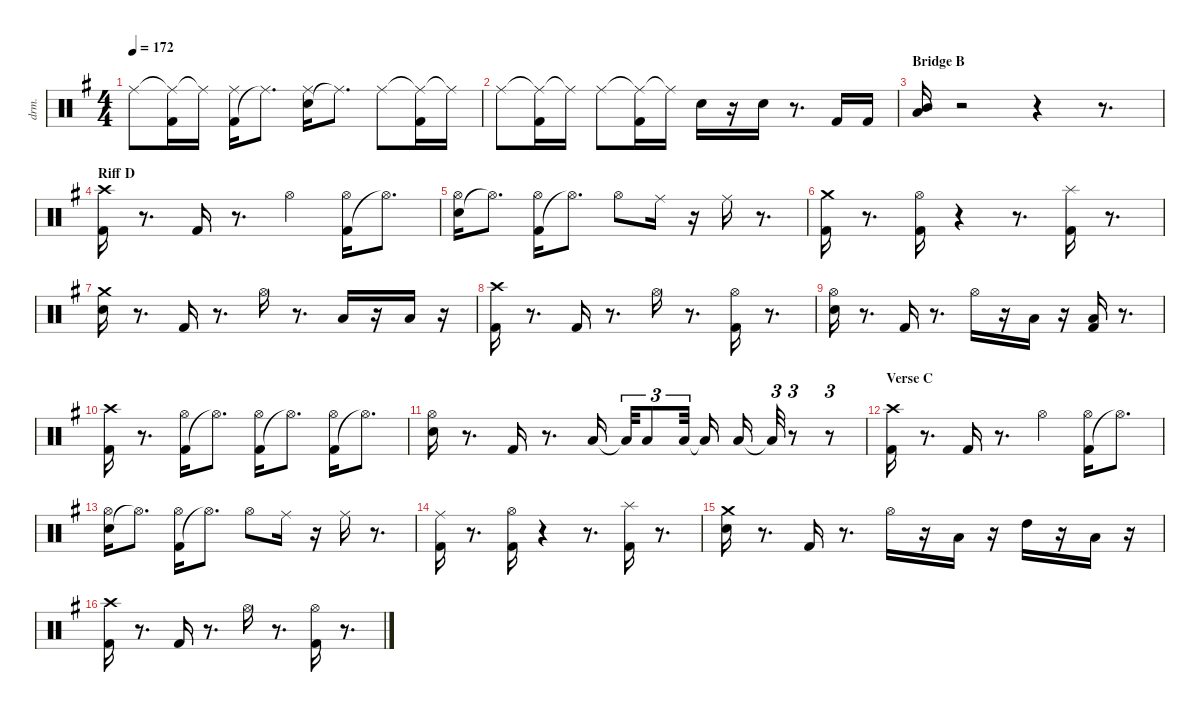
\defaultSystemsLayout 4
\hideDynamics
\bracketExtendMode nobrackets
\otherSystemsTrackNameOrientation horizontal
\track ("Shinya" "drm.") {instrument percussion}
\staff {score}
\articulation defaults
\ts (4 4)
\tempo 172
\clef neutral
\ks eminor "Ride (middle)"{acc #}.8{dy fff}
("Ride (middle)"{t acc #} "Kick (hit) 2"{acc forcenatural}).16 "Ride (middle)"{t acc #}.16 ("Kick (hit) 2"{acc forcenatural} "Ride (middle)"{acc #}).16 "Ride (middle)"{t acc #}.8{d} ("Snare (hit) 2"{acc forcenatural} "Ride (middle)"{acc #}).16 "Ride (middle)"{t acc #}.8{d} "Ride (middle)"{acc #}.8 ("Ride (middle)"{t acc #} "Kick (hit) 2"{acc forcenatural}).16 "Ride (middle)"{t acc #}.16 |
"Ride (middle)"{acc #}.8 ("Ride (middle)"{t acc #} "Kick (hit) 2"{acc forcenatural}).16 "Ride (middle)"{t acc #}.16 "Ride (middle)"{acc #}.8 ("Ride (middle)"{t acc #} "Kick (hit) 2"{acc forcenatural}).16 "Ride (middle)"{t acc #}.16 "Snare (hit) 2"{acc forcenatural}.16 r.16 "Snare (hit) 2"{acc forcenatural}.16 r.8{d} "Kick (hit) 2"{acc forcenatural}.16 "Kick (hit) 2"{acc forcenatural}.16 |
\section ("" "Bridge B")
("Low Tom (hit)"{acc forcenatural} "Mid Tom (hit)"{acc forcenatural}).16 r.2 r.4 r.8{d} |
\section ("" "Riff D")
("Kick (hit) 2"{acc forcenatural} "Crash high (hit)"{acc #}).16 r.8{d} "Kick (hit) 2"{acc forcenatural}.16 r.8{d} "Hi-Hat (open)"{acc #}.4 ("Kick (hit) 2"{acc forcenatural} "Hi-Hat (open)"{acc #}).16 "Hi-Hat (open)"{t acc #}.8{d} |
("Snare (hit) 2"{acc forcenatural} "Hi-Hat (open)"{acc #}).16 "Hi-Hat (open)"{t acc #}.8{d} ("Kick (hit) 2"{acc forcenatural} "Hi-Hat (open)"{acc #}).16 "Hi-Hat (open)"{t acc #}.8{d} "Hi-Hat (open)"{acc #}.8 "Ride (middle)"{acc #}.16 r.16 "Ride (middle)"{acc #}.16 r.8{d} |
("Kick (hit) 2"{acc forcenatural} "Crash medium (hit)"{acc forcenatural}).16 r.8{d} ("Kick (hit) 2"{acc forcenatural} "Hi-Hat (open)"{acc #}).16 r.4 r.8{d} ("Kick (hit) 2"{acc forcenatural} "Splash (hit)"{acc forcenatural}).16 r.8{d} |
("Snare (hit) 2"{acc forcenatural} "Crash medium (hit)"{acc forcenatural}).16 r.8{d} "Kick (hit) 2"{acc forcenatural}.16 r.8{d} "Hi-Hat (open)"{acc #}.16 r.8{d} "Low Tom (hit)"{acc forcenatural}.16 r.16 "Low Tom (hit)"{acc forcenatural}.16 r.16 |
("Kick (hit) 2"{acc forcenatural} "Crash high (hit)"{acc #}).16 r.8{d} "Kick (hit) 2"{acc forcenatural}.16 r.8{d} "Hi-Hat (open)"{acc #}.16 r.8{d} ("Kick (hit) 2"{acc forcenatural} "Hi-Hat (open)"{acc #}).16 r.8{d} |
("Snare (hit) 2"{acc forcenatural} "Hi-Hat (open)"{acc #}).16 r.8{d} "Kick (hit) 2"{acc forcenatural}.16 r.8{d} "Hi-Hat (open)"{acc #}.16 r.16 "Low Tom (hit)"{acc forcenatural}.16 r.16 ("Kick (hit) 2"{acc forcenatural} "Low Tom (hit)"{acc forcenatural}).16 r.8{d} |
("Kick (hit) 2"{acc forcenatural} "Crash high (hit)"{acc #}).16 r.8{d} ("Kick (hit) 2"{acc forcenatural} "Hi-Hat (open)"{acc #}).16 "Hi-Hat (open)"{t acc #}.8{d} ("Kick (hit) 2"{acc forcenatural} "Hi-Hat (open)"{acc #}).16 "Hi-Hat (open)"{t acc #}.8{d} ("Kick (hit) 2"{acc forcenatural} "Hi-Hat (open)"{acc #}).16{dy ff} "Hi-Hat (open)"{t acc #}.8{d} |
("Snare (hit) 2"{acc forcenatural} "Hi-Hat (open)"{acc #}).16{dy fff} r.8{d} "Kick (hit) 2"{acc forcenatural}.16 r.8{d} "Low Tom (hit)"{acc forcenatural}.16{dy ff} "Low Tom (hit)"{t acc forcenatural}.32{tu (3 2)} "Low Tom (hit)"{acc forcenatural}.8{tu (3 2) dy fff} "Low Tom (hit)"{acc forcenatural}.32{tu (3 2)} "Low Tom (hit)"{t acc forcenatural}.16 "Low Tom (hit)"{acc forcenatural}.16 "Low Tom (hit)"{t acc forcenatural}.32{tu (3 2)} r.8{tu (3 2)} r.8{tu (3 2)} |
\section ("" "Verse C")
("Kick (hit) 2"{acc forcenatural} "Crash high (hit)"{acc #}).16 r.8{d} "Kick (hit) 2"{acc forcenatural}.16 r.8{d} "Hi-Hat (open)"{acc #}.4 ("Kick (hit) 2"{acc forcenatural} "Hi-Hat (open)"{acc #}).16 "Hi-Hat (open)"{t acc #}.8{d} |
("Snare (hit) 2"{acc forcenatural} "Hi-Hat (open)"{acc #}).16 "Hi-Hat (open)"{t acc #}.8{d} ("Kick (hit) 2"{acc forcenatural} "Hi-Hat (open)"{acc #}).16 "Hi-Hat (open)"{t acc #}.8{d} "Hi-Hat (open)"{acc #}.8 "Ride (middle)"{acc #}.16 r.16 "Ride (middle)"{acc #}.16 r.8{d} |
("Kick (hit) 2"{acc forcenatural} "Ride (middle)"{acc #}).16 r.8{d} ("Kick (hit) 2"{acc forcenatural} "Hi-Hat (open)"{acc #}).16 r.4 r.8{d} ("Kick (hit) 2"{acc forcenatural} "Splash (hit)"{acc forcenatural}).16 r.8{d} |
("Snare (hit) 2"{acc forcenatural} "Crash medium (hit)"{acc forcenatural}).16 r.8{d} "Kick (hit) 2"{acc forcenatural}.16 r.8{d} "Hi-Hat (open)"{acc #}.16 r.16 "Low Tom (hit)"{acc forcenatural}.16{dy ff} r.16 "High Tom (hit)"{acc forcenatural}.16{dy fff} r.16 "Low Tom (hit)"{acc forcenatural}.16 r.16 |
("Kick (hit) 2"{acc forcenatural} "Crash high (hit)"{acc #}).16 r.8{d} "Kick (hit) 2"{acc forcenatural}.16 r.8{d} "Hi-Hat (open)"{acc #}.16 r.8{d} ("Kick (hit) 2"{acc forcenatural} "Hi-Hat (open)"{acc #}).16 r.8{d}
